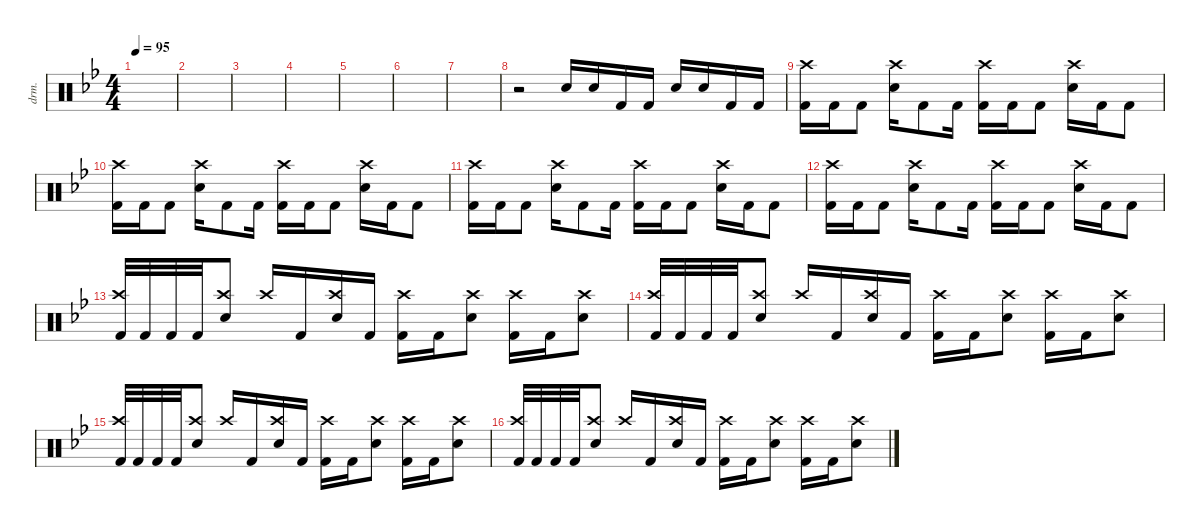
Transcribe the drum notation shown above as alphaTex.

\defaultSystemsLayout 4
\hideDynamics
\bracketExtendMode nobrackets
\otherSystemsTrackNameOrientation horizontal
\track ("Kontakt" "drm.") {instrument percussion}
\staff {score}
\articulation defaults
\ts (4 4)
\tempo 95
\clef neutral
\ks bb
|
|
|
|
|
|
|
r.2{beam Down} "Snare (hit) 2"{acc forcenatural}.16{beam Up} "Snare (hit) 2"{acc forcenatural}.16{beam Up} "Kick (hit) 2"{acc forcenatural}.16{beam Up} "Kick (hit) 2"{acc forcenatural}.16{beam Up} "Snare (hit) 2"{acc forcenatural}.16{beam Up} "Snare (hit) 2"{acc forcenatural}.16{beam Up} "Kick (hit) 2"{acc forcenatural}.16{beam Up} "Kick (hit) 2"{acc forcenatural}.16{beam Up} |
("Kick (hit) 2"{acc forcenatural} "Crash high (hit)"{acc forcenatural}).16{beam Down} "Kick (hit) 2"{acc forcenatural}.16{beam Down} "Kick (hit) 2"{acc forcenatural}.8{beam Down} ("Snare (hit) 2"{acc forcenatural} "Crash high (hit)"{acc forcenatural}).16{beam Down} "Kick (hit) 2"{acc forcenatural}.8{beam Down} "Kick (hit) 2"{acc forcenatural}.16{beam Down} ("Kick (hit) 2"{acc forcenatural} "Crash high (hit)"{acc forcenatural}).16{beam Down} "Kick (hit) 2"{acc forcenatural}.16{beam Down} "Kick (hit) 2"{acc forcenatural}.8{beam Down} ("Snare (hit) 2"{acc forcenatural} "Crash high (hit)"{acc forcenatural}).16{beam Down} "Kick (hit) 2"{acc forcenatural}.16{beam Down} "Kick (hit) 2"{acc forcenatural}.8{beam Down} |
("Kick (hit) 2"{acc forcenatural} "Crash high (hit)"{acc forcenatural}).16{beam Down} "Kick (hit) 2"{acc forcenatural}.16{beam Down} "Kick (hit) 2"{acc forcenatural}.8{beam Down} ("Snare (hit) 2"{acc forcenatural} "Crash high (hit)"{acc forcenatural}).16{beam Down} "Kick (hit) 2"{acc forcenatural}.8{beam Down} "Kick (hit) 2"{acc forcenatural}.16{beam Down} ("Kick (hit) 2"{acc forcenatural} "Crash high (hit)"{acc forcenatural}).16{beam Down} "Kick (hit) 2"{acc forcenatural}.16{beam Down} "Kick (hit) 2"{acc forcenatural}.8{beam Down} ("Snare (hit) 2"{acc forcenatural} "Crash high (hit)"{acc forcenatural}).16{beam Down} "Kick (hit) 2"{acc forcenatural}.16{beam Down} "Kick (hit) 2"{acc forcenatural}.8{beam Down} |
("Kick (hit) 2"{acc forcenatural} "Crash high (hit)"{acc forcenatural}).16{beam Down} "Kick (hit) 2"{acc forcenatural}.16{beam Down} "Kick (hit) 2"{acc forcenatural}.8{beam Down} ("Snare (hit) 2"{acc forcenatural} "Crash high (hit)"{acc forcenatural}).16{beam Down} "Kick (hit) 2"{acc forcenatural}.8{beam Down} "Kick (hit) 2"{acc forcenatural}.16{beam Down} ("Kick (hit) 2"{acc forcenatural} "Crash high (hit)"{acc forcenatural}).16{beam Down} "Kick (hit) 2"{acc forcenatural}.16{beam Down} "Kick (hit) 2"{acc forcenatural}.8{beam Down} ("Snare (hit) 2"{acc forcenatural} "Crash high (hit)"{acc forcenatural}).16{beam Down} "Kick (hit) 2"{acc forcenatural}.16{beam Down} "Kick (hit) 2"{acc forcenatural}.8{beam Down} |
("Kick (hit) 2"{acc forcenatural} "Crash high (hit)"{acc forcenatural}).16{beam Down} "Kick (hit) 2"{acc forcenatural}.16{beam Down} "Kick (hit) 2"{acc forcenatural}.8{beam Down} ("Snare (hit) 2"{acc forcenatural} "Crash high (hit)"{acc forcenatural}).16{beam Down} "Kick (hit) 2"{acc forcenatural}.8{beam Down} "Kick (hit) 2"{acc forcenatural}.16{beam Down} ("Kick (hit) 2"{acc forcenatural} "Crash high (hit)"{acc forcenatural}).16{beam Down} "Kick (hit) 2"{acc forcenatural}.16{beam Down} "Kick (hit) 2"{acc forcenatural}.8{beam Down} ("Snare (hit) 2"{acc forcenatural} "Crash high (hit)"{acc forcenatural}).16{beam Down} "Kick (hit) 2"{acc forcenatural}.16{beam Down} "Kick (hit) 2"{acc forcenatural}.8{beam Down} |
("Kick (hit) 2"{acc forcenatural} "Crash high (hit)"{acc forcenatural}).32{beam Up} "Kick (hit) 2"{acc forcenatural}.32{beam Up} "Kick (hit) 2"{acc forcenatural}.32{beam Up} "Kick (hit) 2"{acc forcenatural}.32{beam Up} ("Snare (hit) 2"{acc forcenatural} "Crash high (hit)"{acc forcenatural}).8{beam Up} "Crash high (hit)"{acc forcenatural}.16{beam Up} "Kick (hit) 2"{acc forcenatural}.16{beam Up} ("Snare (hit) 2"{acc forcenatural} "Crash high (hit)"{acc forcenatural}).16{beam Up} "Kick (hit) 2"{acc forcenatural}.16{beam Up} ("Crash high (hit)"{acc forcenatural} "Kick (hit) 2"{acc forcenatural}).16{beam Down} "Kick (hit) 2"{acc forcenatural}.16{beam Down} ("Snare (hit) 2"{acc forcenatural} "Crash high (hit)"{acc forcenatural}).8{beam Down} ("Crash high (hit)"{acc forcenatural} "Kick (hit) 2"{acc forcenatural}).16{beam Down} "Kick (hit) 2"{acc forcenatural}.16{beam Down} ("Snare (hit) 2"{acc forcenatural} "Crash high (hit)"{acc forcenatural}).8{beam Down} |
("Kick (hit) 2"{acc forcenatural} "Crash high (hit)"{acc forcenatural}).32{beam Up} "Kick (hit) 2"{acc forcenatural}.32{beam Up} "Kick (hit) 2"{acc forcenatural}.32{beam Up} "Kick (hit) 2"{acc forcenatural}.32{beam Up} ("Snare (hit) 2"{acc forcenatural} "Crash high (hit)"{acc forcenatural}).8{beam Up} "Crash high (hit)"{acc forcenatural}.16{beam Up} "Kick (hit) 2"{acc forcenatural}.16{beam Up} ("Snare (hit) 2"{acc forcenatural} "Crash high (hit)"{acc forcenatural}).16{beam Up} "Kick (hit) 2"{acc forcenatural}.16{beam Up} ("Crash high (hit)"{acc forcenatural} "Kick (hit) 2"{acc forcenatural}).16{beam Down} "Kick (hit) 2"{acc forcenatural}.16{beam Down} ("Snare (hit) 2"{acc forcenatural} "Crash high (hit)"{acc forcenatural}).8{beam Down} ("Crash high (hit)"{acc forcenatural} "Kick (hit) 2"{acc forcenatural}).16{beam Down} "Kick (hit) 2"{acc forcenatural}.16{beam Down} ("Snare (hit) 2"{acc forcenatural} "Crash high (hit)"{acc forcenatural}).8{beam Down} |
("Kick (hit) 2"{acc forcenatural} "Crash high (hit)"{acc forcenatural}).32{beam Up} "Kick (hit) 2"{acc forcenatural}.32{beam Up} "Kick (hit) 2"{acc forcenatural}.32{beam Up} "Kick (hit) 2"{acc forcenatural}.32{beam Up} ("Snare (hit) 2"{acc forcenatural} "Crash high (hit)"{acc forcenatural}).8{beam Up} "Crash high (hit)"{acc forcenatural}.16{beam Up} "Kick (hit) 2"{acc forcenatural}.16{beam Up} ("Snare (hit) 2"{acc forcenatural} "Crash high (hit)"{acc forcenatural}).16{beam Up} "Kick (hit) 2"{acc forcenatural}.16{beam Up} ("Crash high (hit)"{acc forcenatural} "Kick (hit) 2"{acc forcenatural}).16{beam Down} "Kick (hit) 2"{acc forcenatural}.16{beam Down} ("Snare (hit) 2"{acc forcenatural} "Crash high (hit)"{acc forcenatural}).8{beam Down} ("Crash high (hit)"{acc forcenatural} "Kick (hit) 2"{acc forcenatural}).16{beam Down} "Kick (hit) 2"{acc forcenatural}.16{beam Down} ("Snare (hit) 2"{acc forcenatural} "Crash high (hit)"{acc forcenatural}).8{beam Down} |
("Kick (hit) 2"{acc forcenatural} "Crash high (hit)"{acc forcenatural}).32{beam Up} "Kick (hit) 2"{acc forcenatural}.32{beam Up} "Kick (hit) 2"{acc forcenatural}.32{beam Up} "Kick (hit) 2"{acc forcenatural}.32{beam Up} ("Snare (hit) 2"{acc forcenatural} "Crash high (hit)"{acc forcenatural}).8{beam Up} "Crash high (hit)"{acc forcenatural}.16{beam Up} "Kick (hit) 2"{acc forcenatural}.16{beam Up} ("Snare (hit) 2"{acc forcenatural} "Crash high (hit)"{acc forcenatural}).16{beam Up} "Kick (hit) 2"{acc forcenatural}.16{beam Up} ("Crash high (hit)"{acc forcenatural} "Kick (hit) 2"{acc forcenatural}).16{beam Down} "Kick (hit) 2"{acc forcenatural}.16{beam Down} ("Snare (hit) 2"{acc forcenatural} "Crash high (hit)"{acc forcenatural}).8{beam Down} ("Crash high (hit)"{acc forcenatural} "Kick (hit) 2"{acc forcenatural}).16{beam Down} "Kick (hit) 2"{acc forcenatural}.16{beam Down} ("Snare (hit) 2"{acc forcenatural} "Crash high (hit)"{acc forcenatural}).8{beam Down}
